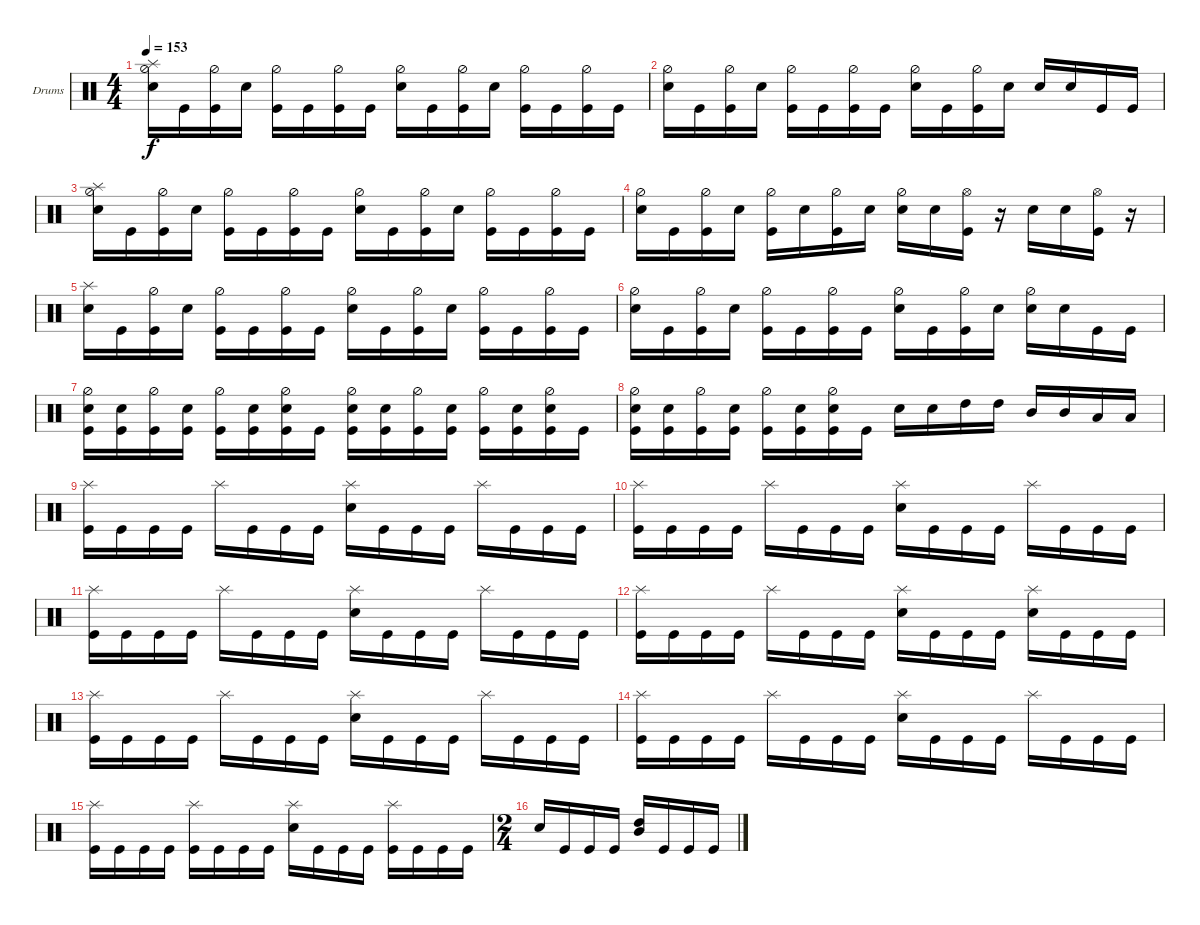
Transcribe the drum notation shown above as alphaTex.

\bracketExtendMode groupsimilarinstruments
\firstSystemTrackNameOrientation horizontal
\otherSystemsTrackNameOrientation horizontal
\track ("Drumkit" "Drums") {instrument percussion}
\staff {score}
\articulation defaults
\ts (4 4)
\tempo 153
\clef neutral
\ks c
("Snare (hit) 2" "Hi-Hat (half)" "Splash (hit)").16{dy f} "Kick (hit)".16 ("Kick (hit)" "Hi-Hat (half)").16 "Snare (hit) 2".16 ("Kick (hit)" "Hi-Hat (half)").16 "Kick (hit)".16 ("Kick (hit)" "Hi-Hat (half)").16 "Kick (hit)".16 ("Snare (hit) 2" "Hi-Hat (half)").16 "Kick (hit)".16 ("Kick (hit)" "Hi-Hat (half)").16 "Snare (hit) 2".16 ("Kick (hit)" "Hi-Hat (half)").16 "Kick (hit)".16 ("Kick (hit)" "Hi-Hat (half)").16 "Kick (hit)".16 |
("Snare (hit) 2" "Hi-Hat (half)").16 "Kick (hit)".16 ("Kick (hit)" "Hi-Hat (half)").16 "Snare (hit) 2".16 ("Kick (hit)" "Hi-Hat (half)").16 "Kick (hit)".16 ("Kick (hit)" "Hi-Hat (half)").16 "Kick (hit)".16 ("Snare (hit) 2" "Hi-Hat (half)").16 "Kick (hit)".16 ("Kick (hit)" "Hi-Hat (half)").16 "Snare (hit) 2".16 "Snare (hit) 2".16 "Snare (hit) 2".16 "Kick (hit)".16 "Kick (hit)".16 |
("Snare (hit) 2" "Splash (hit)" "Hi-Hat (half)").16 "Kick (hit)".16 ("Kick (hit)" "Hi-Hat (half)").16 "Snare (hit) 2".16 ("Kick (hit)" "Hi-Hat (half)").16 "Kick (hit)".16 ("Kick (hit)" "Hi-Hat (half)").16 "Kick (hit)".16 ("Snare (hit) 2" "Hi-Hat (half)").16 "Kick (hit)".16 ("Kick (hit)" "Hi-Hat (half)").16 "Snare (hit) 2".16 ("Kick (hit)" "Hi-Hat (half)").16 "Kick (hit)".16 ("Kick (hit)" "Hi-Hat (half)").16 "Kick (hit)".16 |
("Snare (hit) 2" "Hi-Hat (half)").16 "Kick (hit)".16 ("Kick (hit)" "Hi-Hat (half)").16 "Snare (hit) 2".16 ("Kick (hit)" "Hi-Hat (half)").16 "Snare (hit) 2".16 ("Kick (hit)" "Hi-Hat (half)").16 "Snare (hit) 2".16 ("Snare (hit) 2" "Hi-Hat (half)").16 "Snare (hit) 2".16 ("Kick (hit)" "Hi-Hat (open)").16 r.16 "Snare (hit) 2".16 "Snare (hit) 2".16 ("Kick (hit)" "Hi-Hat (open)").16 r.16 |
("Snare (hit) 2" "Splash (hit)").16 "Kick (hit)".16 ("Kick (hit)" "Hi-Hat (half)").16 "Snare (hit) 2".16 ("Kick (hit)" "Hi-Hat (half)").16 "Kick (hit)".16 ("Kick (hit)" "Hi-Hat (half)").16 "Kick (hit)".16 ("Snare (hit) 2" "Hi-Hat (half)").16 "Kick (hit)".16 ("Kick (hit)" "Hi-Hat (half)").16 "Snare (hit) 2".16 ("Kick (hit)" "Hi-Hat (half)").16 "Kick (hit)".16 ("Kick (hit)" "Hi-Hat (half)").16 "Kick (hit)".16 |
("Snare (hit) 2" "Hi-Hat (half)").16 "Kick (hit)".16 ("Kick (hit)" "Hi-Hat (half)").16 "Snare (hit) 2".16 ("Kick (hit)" "Hi-Hat (half)").16 "Kick (hit)".16 ("Kick (hit)" "Hi-Hat (half)").16 "Kick (hit)".16 ("Snare (hit) 2" "Hi-Hat (half)").16 "Kick (hit)".16 ("Kick (hit)" "Hi-Hat (half)").16 "Snare (hit) 2".16 ("Snare (hit) 2" "Hi-Hat (half)").16 "Snare (hit) 2".16 "Kick (hit)".16 "Kick (hit)".16 |
("Snare (hit) 2" "Kick (hit)" "Hi-Hat (half)").16 ("Snare (hit) 2" "Kick (hit)").16 ("Kick (hit)" "Hi-Hat (half)").16 ("Snare (hit) 2" "Kick (hit)").16 ("Kick (hit)" "Hi-Hat (half)").16 ("Snare (hit) 2" "Kick (hit)").16 ("Snare (hit) 2" "Kick (hit)" "Hi-Hat (half)").16 "Kick (hit)".16 ("Snare (hit) 2" "Kick (hit)" "Hi-Hat (half)").16 ("Snare (hit) 2" "Kick (hit)").16 ("Kick (hit)" "Hi-Hat (half)").16 ("Snare (hit) 2" "Kick (hit)").16 ("Kick (hit)" "Hi-Hat (half)").16 ("Snare (hit) 2" "Kick (hit)").16 ("Snare (hit) 2" "Kick (hit)" "Hi-Hat (half)").16 "Kick (hit)".16 |
("Snare (hit) 2" "Kick (hit)" "Hi-Hat (half)").16 ("Snare (hit) 2" "Kick (hit)").16 ("Kick (hit)" "Hi-Hat (half)").16 ("Snare (hit) 2" "Kick (hit)").16 ("Kick (hit)" "Hi-Hat (half)").16 ("Snare (hit) 2" "Kick (hit)").16 ("Snare (hit) 2" "Kick (hit)" "Hi-Hat (half)").16 "Kick (hit)".16 "Snare (hit) 2".16 "Snare (hit) 2".16 "High Tom (hit)".16 "High Tom (hit)".16 "Mid Tom (hit)".16 "Mid Tom (hit)".16 "Low Tom (hit)".16 "Low Tom (hit)".16 |
("Kick (hit)" "Splash (hit)").16 "Kick (hit)".16 "Kick (hit)".16 "Kick (hit)".16 "Splash (hit)".16 "Kick (hit)".16 "Kick (hit)".16 "Kick (hit)".16 ("Snare (hit) 2" "Splash (hit)").16 "Kick (hit)".16 "Kick (hit)".16 "Kick (hit)".16 "Splash (hit)".16 "Kick (hit)".16 "Kick (hit)".16 "Kick (hit)".16 |
("Kick (hit)" "Splash (hit)").16 "Kick (hit)".16 "Kick (hit)".16 "Kick (hit)".16 "Splash (hit)".16 "Kick (hit)".16 "Kick (hit)".16 "Kick (hit)".16 ("Snare (hit) 2" "Splash (hit)").16 "Kick (hit)".16 "Kick (hit)".16 "Kick (hit)".16 "Splash (hit)".16 "Kick (hit)".16 "Kick (hit)".16 "Kick (hit)".16 |
("Kick (hit)" "Splash (hit)").16 "Kick (hit)".16 "Kick (hit)".16 "Kick (hit)".16 "Splash (hit)".16 "Kick (hit)".16 "Kick (hit)".16 "Kick (hit)".16 ("Snare (hit) 2" "Splash (hit)").16 "Kick (hit)".16 "Kick (hit)".16 "Kick (hit)".16 "Splash (hit)".16 "Kick (hit)".16 "Kick (hit)".16 "Kick (hit)".16 |
("Kick (hit)" "Splash (hit)").16 "Kick (hit)".16 "Kick (hit)".16 "Kick (hit)".16 "Splash (hit)".16 "Kick (hit)".16 "Kick (hit)".16 "Kick (hit)".16 ("Snare (hit) 2" "Splash (hit)").16 "Kick (hit)".16 "Kick (hit)".16 "Kick (hit)".16 ("Splash (hit)" "Snare (hit) 2").16 "Kick (hit)".16 "Kick (hit)".16 "Kick (hit)".16 |
("Kick (hit)" "Splash (hit)").16 "Kick (hit)".16 "Kick (hit)".16 "Kick (hit)".16 "Splash (hit)".16 "Kick (hit)".16 "Kick (hit)".16 "Kick (hit)".16 ("Snare (hit) 2" "Splash (hit)").16 "Kick (hit)".16 "Kick (hit)".16 "Kick (hit)".16 "Splash (hit)".16 "Kick (hit)".16 "Kick (hit)".16 "Kick (hit)".16 |
("Kick (hit)" "Splash (hit)").16 "Kick (hit)".16 "Kick (hit)".16 "Kick (hit)".16 "Splash (hit)".16 "Kick (hit)".16 "Kick (hit)".16 "Kick (hit)".16 ("Snare (hit) 2" "Splash (hit)").16 "Kick (hit)".16 "Kick (hit)".16 "Kick (hit)".16 "Splash (hit)".16 "Kick (hit)".16 "Kick (hit)".16 "Kick (hit)".16 |
("Kick (hit)" "Splash (hit)").16 "Kick (hit)".16 "Kick (hit)".16 "Kick (hit)".16 ("Kick (hit)" "Splash (hit)").16 "Kick (hit)".16 "Kick (hit)".16 "Kick (hit)".16 ("Snare (hit) 2" "Splash (hit)").16 "Kick (hit)".16 "Kick (hit)".16 "Kick (hit)".16 ("Kick (hit)" "Splash (hit)").16 "Kick (hit)".16 "Kick (hit)".16 "Kick (hit)".16 |
\ts (2 4)
"Snare (hit) 2".16 "Kick (hit)".16 "Kick (hit)".16 "Kick (hit)".16 ("High Tom (hit)" "Mid Tom (hit)").16 "Kick (hit)".16 "Kick (hit)".16 "Kick (hit)".16
